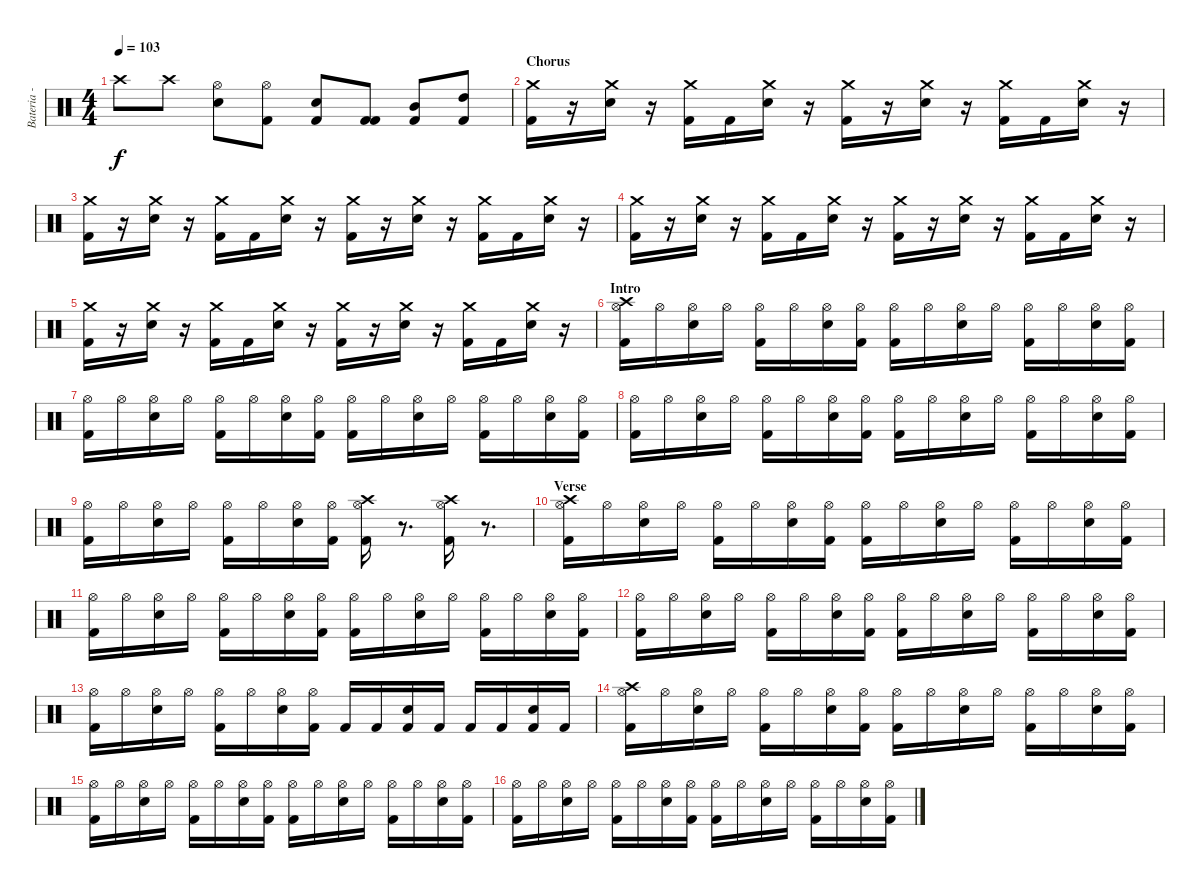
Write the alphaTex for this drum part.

\track ("Bateria - Larzon" "Bateria - ") {instrument percussion}
\staff {score}
\articulation defaults
\ts (4 4)
\tempo 103
\clef neutral
\ks c "Crash high (hit)".8{dy f} "Crash high (hit)".8
("Snare (hit) 2" "Hi-Hat (open)").8 ("Kick (hit) 2" "Hi-Hat (open)").8 ("Snare (hit) 2" "Kick (hit) 2").8 ("Kick (hit) 2" "Kick (hit) 2").8 ("Mid Tom (hit)" "Kick (hit) 2").8 ("High Tom (hit)" "Kick (hit) 2").8 |
\section ("" "Chorus")
("Kick (hit) 2" "Crash medium (hit)").16 r.16 ("Snare (hit) 2" "Crash medium (hit)").16 r.16 ("Kick (hit) 2" "Crash medium (hit)").16 "Kick (hit) 2".16 ("Snare (hit) 2" "Crash medium (hit)").16 r.16 ("Kick (hit) 2" "Crash medium (hit)").16 r.16 ("Snare (hit) 2" "Crash medium (hit)").16 r.16 ("Kick (hit) 2" "Crash medium (hit)").16 "Kick (hit) 2".16 ("Snare (hit) 2" "Crash medium (hit)").16 r.16 |
("Kick (hit) 2" "Crash medium (hit)").16 r.16 ("Snare (hit) 2" "Crash medium (hit)").16 r.16 ("Kick (hit) 2" "Crash medium (hit)").16 "Kick (hit) 2".16 ("Snare (hit) 2" "Crash medium (hit)").16 r.16 ("Kick (hit) 2" "Crash medium (hit)").16 r.16 ("Snare (hit) 2" "Crash medium (hit)").16 r.16 ("Kick (hit) 2" "Crash medium (hit)").16 "Kick (hit) 2".16 ("Snare (hit) 2" "Crash medium (hit)").16 r.16 |
("Kick (hit) 2" "Crash medium (hit)").16 r.16 ("Snare (hit) 2" "Crash medium (hit)").16 r.16 ("Kick (hit) 2" "Crash medium (hit)").16 "Kick (hit) 2".16 ("Snare (hit) 2" "Crash medium (hit)").16 r.16 ("Kick (hit) 2" "Crash medium (hit)").16 r.16 ("Snare (hit) 2" "Crash medium (hit)").16 r.16 ("Kick (hit) 2" "Crash medium (hit)").16 "Kick (hit) 2".16 ("Snare (hit) 2" "Crash medium (hit)").16 r.16 |
("Kick (hit) 2" "Crash medium (hit)").16 r.16 ("Snare (hit) 2" "Crash medium (hit)").16 r.16 ("Kick (hit) 2" "Crash medium (hit)").16 "Kick (hit) 2".16 ("Snare (hit) 2" "Crash medium (hit)").16 r.16 ("Kick (hit) 2" "Crash medium (hit)").16 r.16 ("Snare (hit) 2" "Crash medium (hit)").16 r.16 ("Kick (hit) 2" "Crash medium (hit)").16 "Kick (hit) 2".16 ("Snare (hit) 2" "Crash medium (hit)").16 r.16 |
\section ("" "Intro")
("Kick (hit) 2" "Crash high (hit)" "Hi-Hat (open)").16{volume 13} "Hi-Hat (open)".16 ("Snare (hit) 2" "Hi-Hat (open)").16 "Hi-Hat (open)".16 ("Kick (hit) 2" "Hi-Hat (open)").16 "Hi-Hat (open)".16 ("Snare (hit) 2" "Hi-Hat (open)").16 ("Kick (hit) 2" "Hi-Hat (open)").16 ("Kick (hit) 2" "Hi-Hat (open)").16 "Hi-Hat (open)".16 ("Snare (hit) 2" "Hi-Hat (open)").16 "Hi-Hat (open)".16 ("Kick (hit) 2" "Hi-Hat (open)").16 "Hi-Hat (open)".16 ("Snare (hit) 2" "Hi-Hat (open)").16 ("Kick (hit) 2" "Hi-Hat (open)").16 |
("Kick (hit) 2" "Hi-Hat (open)").16 "Hi-Hat (open)".16 ("Snare (hit) 2" "Hi-Hat (open)").16 "Hi-Hat (open)".16 ("Kick (hit) 2" "Hi-Hat (open)").16 "Hi-Hat (open)".16 ("Snare (hit) 2" "Hi-Hat (open)").16 ("Kick (hit) 2" "Hi-Hat (open)").16 ("Kick (hit) 2" "Hi-Hat (open)").16 "Hi-Hat (open)".16 ("Snare (hit) 2" "Hi-Hat (open)").16 "Hi-Hat (open)".16 ("Kick (hit) 2" "Hi-Hat (open)").16 "Hi-Hat (open)".16 ("Snare (hit) 2" "Hi-Hat (open)").16 ("Kick (hit) 2" "Hi-Hat (open)").16 |
("Kick (hit) 2" "Hi-Hat (open)").16 "Hi-Hat (open)".16 ("Snare (hit) 2" "Hi-Hat (open)").16 "Hi-Hat (open)".16 ("Kick (hit) 2" "Hi-Hat (open)").16 "Hi-Hat (open)".16 ("Snare (hit) 2" "Hi-Hat (open)").16 ("Kick (hit) 2" "Hi-Hat (open)").16 ("Kick (hit) 2" "Hi-Hat (open)").16 "Hi-Hat (open)".16 ("Snare (hit) 2" "Hi-Hat (open)").16 "Hi-Hat (open)".16 ("Kick (hit) 2" "Hi-Hat (open)").16 "Hi-Hat (open)".16 ("Snare (hit) 2" "Hi-Hat (open)").16 ("Kick (hit) 2" "Hi-Hat (open)").16 |
("Kick (hit) 2" "Hi-Hat (open)").16 "Hi-Hat (open)".16 ("Snare (hit) 2" "Hi-Hat (open)").16 "Hi-Hat (open)".16 ("Kick (hit) 2" "Hi-Hat (open)").16 "Hi-Hat (open)".16 ("Snare (hit) 2" "Hi-Hat (open)").16 ("Kick (hit) 2" "Hi-Hat (open)").16 ("Hi-Hat (open)" "Crash high (hit)" "Kick (hit) 2").16 r.8{d volume 0} ("Hi-Hat (open)" "Crash high (hit)" "Kick (hit) 2").16{volume 13} r.8{d volume 0} |
\section ("" "Verse")
("Kick (hit) 2" "Crash high (hit)" "Hi-Hat (open)").16{volume 13} "Hi-Hat (open)".16 ("Snare (hit) 2" "Hi-Hat (open)").16 "Hi-Hat (open)".16 ("Kick (hit) 2" "Hi-Hat (open)").16 "Hi-Hat (open)".16 ("Snare (hit) 2" "Hi-Hat (open)").16 ("Kick (hit) 2" "Hi-Hat (open)").16 ("Kick (hit) 2" "Hi-Hat (open)").16 "Hi-Hat (open)".16 ("Snare (hit) 2" "Hi-Hat (open)").16 "Hi-Hat (open)".16 ("Kick (hit) 2" "Hi-Hat (open)").16 "Hi-Hat (open)".16 ("Snare (hit) 2" "Hi-Hat (open)").16 ("Kick (hit) 2" "Hi-Hat (open)").16 |
("Kick (hit) 2" "Hi-Hat (open)").16 "Hi-Hat (open)".16 ("Snare (hit) 2" "Hi-Hat (open)").16 "Hi-Hat (open)".16 ("Kick (hit) 2" "Hi-Hat (open)").16 "Hi-Hat (open)".16 ("Snare (hit) 2" "Hi-Hat (open)").16 ("Kick (hit) 2" "Hi-Hat (open)").16 ("Kick (hit) 2" "Hi-Hat (open)").16 "Hi-Hat (open)".16 ("Snare (hit) 2" "Hi-Hat (open)").16 "Hi-Hat (open)".16 ("Kick (hit) 2" "Hi-Hat (open)").16 "Hi-Hat (open)".16 ("Snare (hit) 2" "Hi-Hat (open)").16 ("Kick (hit) 2" "Hi-Hat (open)").16 |
("Kick (hit) 2" "Hi-Hat (open)").16 "Hi-Hat (open)".16 ("Snare (hit) 2" "Hi-Hat (open)").16 "Hi-Hat (open)".16 ("Kick (hit) 2" "Hi-Hat (open)").16 "Hi-Hat (open)".16 ("Snare (hit) 2" "Hi-Hat (open)").16 ("Kick (hit) 2" "Hi-Hat (open)").16 ("Kick (hit) 2" "Hi-Hat (open)").16 "Hi-Hat (open)".16 ("Snare (hit) 2" "Hi-Hat (open)").16 "Hi-Hat (open)".16 ("Kick (hit) 2" "Hi-Hat (open)").16 "Hi-Hat (open)".16 ("Snare (hit) 2" "Hi-Hat (open)").16 ("Kick (hit) 2" "Hi-Hat (open)").16 |
("Kick (hit) 2" "Hi-Hat (open)").16 "Hi-Hat (open)".16 ("Snare (hit) 2" "Hi-Hat (open)").16 "Hi-Hat (open)".16 ("Kick (hit) 2" "Hi-Hat (open)").16 "Hi-Hat (open)".16 ("Snare (hit) 2" "Hi-Hat (open)").16 ("Kick (hit) 2" "Hi-Hat (open)").16 "Kick (hit) 2".16 "Kick (hit) 2".16 ("Kick (hit) 2" "Snare (hit) 2").16 "Kick (hit) 2".16 "Kick (hit) 2".16 "Kick (hit) 2".16 ("Kick (hit) 2" "Snare (hit) 2").16 "Kick (hit) 2".16 |
("Kick (hit) 2" "Crash high (hit)" "Hi-Hat (open)").16{volume 13} "Hi-Hat (open)".16 ("Snare (hit) 2" "Hi-Hat (open)").16 "Hi-Hat (open)".16 ("Kick (hit) 2" "Hi-Hat (open)").16 "Hi-Hat (open)".16 ("Snare (hit) 2" "Hi-Hat (open)").16 ("Kick (hit) 2" "Hi-Hat (open)").16 ("Kick (hit) 2" "Hi-Hat (open)").16 "Hi-Hat (open)".16 ("Snare (hit) 2" "Hi-Hat (open)").16 "Hi-Hat (open)".16 ("Kick (hit) 2" "Hi-Hat (open)").16 "Hi-Hat (open)".16 ("Snare (hit) 2" "Hi-Hat (open)").16 ("Kick (hit) 2" "Hi-Hat (open)").16 |
("Kick (hit) 2" "Hi-Hat (open)").16 "Hi-Hat (open)".16 ("Snare (hit) 2" "Hi-Hat (open)").16 "Hi-Hat (open)".16 ("Kick (hit) 2" "Hi-Hat (open)").16 "Hi-Hat (open)".16 ("Snare (hit) 2" "Hi-Hat (open)").16 ("Kick (hit) 2" "Hi-Hat (open)").16 ("Kick (hit) 2" "Hi-Hat (open)").16 "Hi-Hat (open)".16 ("Snare (hit) 2" "Hi-Hat (open)").16 "Hi-Hat (open)".16 ("Kick (hit) 2" "Hi-Hat (open)").16 "Hi-Hat (open)".16 ("Snare (hit) 2" "Hi-Hat (open)").16 ("Kick (hit) 2" "Hi-Hat (open)").16 |
("Kick (hit) 2" "Hi-Hat (open)").16 "Hi-Hat (open)".16 ("Snare (hit) 2" "Hi-Hat (open)").16 "Hi-Hat (open)".16 ("Kick (hit) 2" "Hi-Hat (open)").16 "Hi-Hat (open)".16 ("Snare (hit) 2" "Hi-Hat (open)").16 ("Kick (hit) 2" "Hi-Hat (open)").16 ("Kick (hit) 2" "Hi-Hat (open)").16 "Hi-Hat (open)".16 ("Snare (hit) 2" "Hi-Hat (open)").16 "Hi-Hat (open)".16 ("Kick (hit) 2" "Hi-Hat (open)").16 "Hi-Hat (open)".16 ("Snare (hit) 2" "Hi-Hat (open)").16 ("Kick (hit) 2" "Hi-Hat (open)").16
